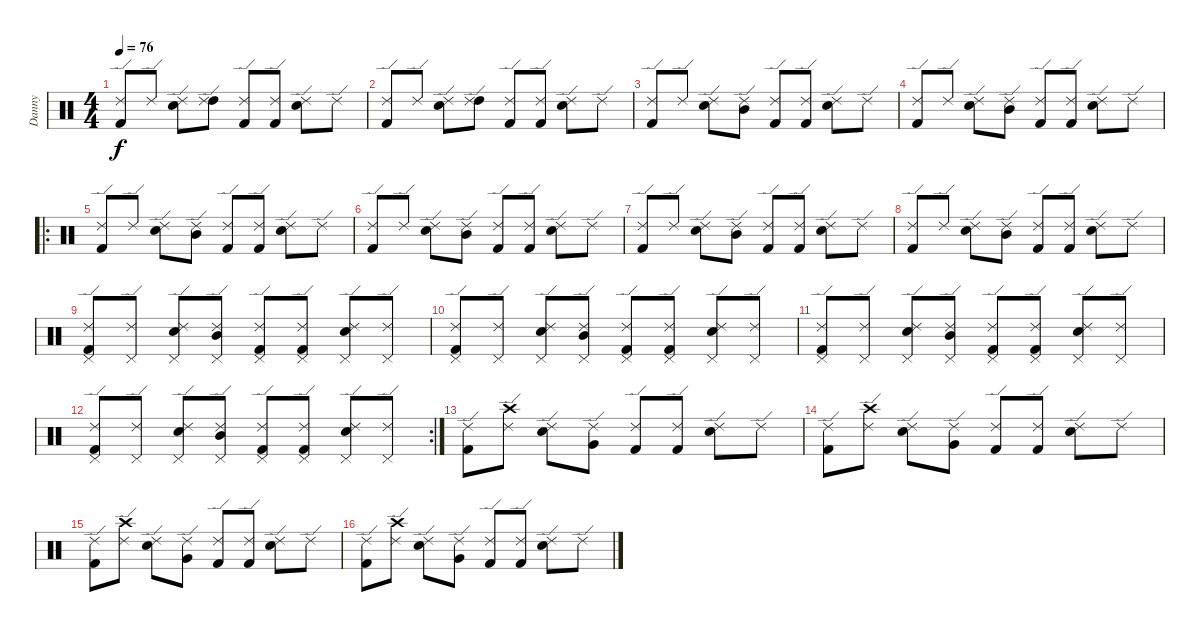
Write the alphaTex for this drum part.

\track ("Danny" "Danny") {instrument percussion}
\staff {score}
\articulation defaults
\ts (4 4)
\tempo 76
\clef neutral
\ks c
("Kick (hit) 2" "Ride (edge) 2").8{dy f} "Ride (edge) 2".8 ("Electric Snare (hit)" "Ride (edge) 2").8 ("High Tom (hit)" "Ride (edge) 2").8 ("Kick (hit) 2" "Ride (edge) 2").8 ("Kick (hit) 2" "Ride (edge) 2").8 ("Electric Snare (hit)" "Ride (edge) 2").8 "Ride (edge) 2".8 |
("Kick (hit) 2" "Ride (edge) 2").8 "Ride (edge) 2".8 ("Electric Snare (hit)" "Ride (edge) 2").8 ("High Tom (hit)" "Ride (edge) 2").8 ("Kick (hit) 2" "Ride (edge) 2").8 ("Kick (hit) 2" "Ride (edge) 2").8 ("Electric Snare (hit)" "Ride (edge) 2").8 "Ride (edge) 2".8 |
("Kick (hit) 2" "Ride (edge) 2").8 "Ride (edge) 2".8 ("Electric Snare (hit)" "Ride (edge) 2").8 ("Mid Tom (hit)" "Ride (edge) 2").8 ("Kick (hit) 2" "Ride (edge) 2").8 ("Kick (hit) 2" "Ride (edge) 2").8 ("Electric Snare (hit)" "Ride (edge) 2").8 "Ride (edge) 2".8 |
("Kick (hit) 2" "Ride (edge) 2").8 "Ride (edge) 2".8 ("Electric Snare (hit)" "Ride (edge) 2").8 ("Mid Tom (hit)" "Ride (edge) 2").8 ("Kick (hit) 2" "Ride (edge) 2").8 ("Kick (hit) 2" "Ride (edge) 2").8 ("Electric Snare (hit)" "Ride (edge) 2").8 "Ride (edge) 2".8 |
\ro
("Kick (hit) 2" "Ride (edge) 2").8 "Ride (edge) 2".8 ("Electric Snare (hit)" "Ride (edge) 2").8 ("Mid Tom (hit)" "Ride (edge) 2").8 ("Kick (hit) 2" "Ride (edge) 2").8 ("Kick (hit) 2" "Ride (edge) 2").8 ("Electric Snare (hit)" "Ride (edge) 2").8 "Ride (edge) 2".8 |
("Kick (hit) 2" "Ride (edge) 2").8 "Ride (edge) 2".8 ("Electric Snare (hit)" "Ride (edge) 2").8 ("Mid Tom (hit)" "Ride (edge) 2").8 ("Kick (hit) 2" "Ride (edge) 2").8 ("Kick (hit) 2" "Ride (edge) 2").8 ("Electric Snare (hit)" "Ride (edge) 2").8 "Ride (edge) 2".8 |
("Kick (hit) 2" "Ride (edge) 2").8 "Ride (edge) 2".8 ("Electric Snare (hit)" "Ride (edge) 2").8 ("Mid Tom (hit)" "Ride (edge) 2").8 ("Kick (hit) 2" "Ride (edge) 2").8 ("Kick (hit) 2" "Ride (edge) 2").8 ("Electric Snare (hit)" "Ride (edge) 2").8 "Ride (edge) 2".8 |
("Kick (hit) 2" "Ride (edge) 2").8 "Ride (edge) 2".8 ("Electric Snare (hit)" "Ride (edge) 2").8 ("Mid Tom (hit)" "Ride (edge) 2").8 ("Kick (hit) 2" "Ride (edge) 2").8 ("Kick (hit) 2" "Ride (edge) 2").8 ("Electric Snare (hit)" "Ride (edge) 2").8 "Ride (edge) 2".8 |
("Kick (hit) 2" "Ride (edge) 2" "Pedal Hi-Hat (hit)").8 ("Ride (edge) 2" "Pedal Hi-Hat (hit)").8 ("Electric Snare (hit)" "Ride (edge) 2" "Pedal Hi-Hat (hit)").8 ("Mid Tom (hit)" "Ride (edge) 2" "Pedal Hi-Hat (hit)").8 ("Kick (hit) 2" "Ride (edge) 2" "Pedal Hi-Hat (hit)").8 ("Kick (hit) 2" "Ride (edge) 2" "Pedal Hi-Hat (hit)").8 ("Electric Snare (hit)" "Ride (edge) 2" "Pedal Hi-Hat (hit)").8 ("Ride (edge) 2" "Pedal Hi-Hat (hit)").8 |
("Kick (hit) 2" "Ride (edge) 2" "Pedal Hi-Hat (hit)").8 ("Ride (edge) 2" "Pedal Hi-Hat (hit)").8 ("Electric Snare (hit)" "Ride (edge) 2" "Pedal Hi-Hat (hit)").8 ("Mid Tom (hit)" "Ride (edge) 2" "Pedal Hi-Hat (hit)").8 ("Kick (hit) 2" "Ride (edge) 2" "Pedal Hi-Hat (hit)").8 ("Kick (hit) 2" "Ride (edge) 2" "Pedal Hi-Hat (hit)").8 ("Electric Snare (hit)" "Ride (edge) 2" "Pedal Hi-Hat (hit)").8 ("Ride (edge) 2" "Pedal Hi-Hat (hit)").8 |
("Kick (hit) 2" "Ride (edge) 2" "Pedal Hi-Hat (hit)").8 ("Ride (edge) 2" "Pedal Hi-Hat (hit)").8 ("Electric Snare (hit)" "Ride (edge) 2" "Pedal Hi-Hat (hit)").8 ("Mid Tom (hit)" "Ride (edge) 2" "Pedal Hi-Hat (hit)").8 ("Kick (hit) 2" "Ride (edge) 2" "Pedal Hi-Hat (hit)").8 ("Kick (hit) 2" "Ride (edge) 2" "Pedal Hi-Hat (hit)").8 ("Electric Snare (hit)" "Ride (edge) 2" "Pedal Hi-Hat (hit)").8 ("Ride (edge) 2" "Pedal Hi-Hat (hit)").8 |
\rc 2
("Kick (hit) 2" "Ride (edge) 2" "Pedal Hi-Hat (hit)").8 ("Ride (edge) 2" "Pedal Hi-Hat (hit)").8 ("Electric Snare (hit)" "Ride (edge) 2" "Pedal Hi-Hat (hit)").8 ("Mid Tom (hit)" "Ride (edge) 2" "Pedal Hi-Hat (hit)").8 ("Kick (hit) 2" "Ride (edge) 2" "Pedal Hi-Hat (hit)").8 ("Kick (hit) 2" "Ride (edge) 2" "Pedal Hi-Hat (hit)").8 ("Electric Snare (hit)" "Ride (edge) 2" "Pedal Hi-Hat (hit)").8 ("Ride (edge) 2" "Pedal Hi-Hat (hit)").8 |
("Kick (hit) 2" "Ride (edge) 2").8 ("Ride (edge) 2" "Crash high (hit)").8 ("Electric Snare (hit)" "Ride (edge) 2").8 ("Very Low Tom (hit)" "Ride (edge) 2").8 ("Kick (hit) 2" "Ride (edge) 2").8 ("Kick (hit) 2" "Ride (edge) 2").8 ("Electric Snare (hit)" "Ride (edge) 2").8 "Ride (edge) 2".8 |
("Kick (hit) 2" "Ride (edge) 2").8 ("Ride (edge) 2" "Crash high (hit)").8 ("Electric Snare (hit)" "Ride (edge) 2").8 ("Very Low Tom (hit)" "Ride (edge) 2").8 ("Kick (hit) 2" "Ride (edge) 2").8 ("Kick (hit) 2" "Ride (edge) 2").8 ("Electric Snare (hit)" "Ride (edge) 2").8 "Ride (edge) 2".8 |
("Kick (hit) 2" "Ride (edge) 2").8 ("Ride (edge) 2" "Crash high (hit)").8 ("Electric Snare (hit)" "Ride (edge) 2").8 ("Very Low Tom (hit)" "Ride (edge) 2").8 ("Kick (hit) 2" "Ride (edge) 2").8 ("Kick (hit) 2" "Ride (edge) 2").8 ("Electric Snare (hit)" "Ride (edge) 2").8 "Ride (edge) 2".8 |
("Kick (hit) 2" "Ride (edge) 2").8 ("Ride (edge) 2" "Crash high (hit)").8 ("Electric Snare (hit)" "Ride (edge) 2").8 ("Very Low Tom (hit)" "Ride (edge) 2").8 ("Kick (hit) 2" "Ride (edge) 2").8 ("Kick (hit) 2" "Ride (edge) 2").8 ("Electric Snare (hit)" "Ride (edge) 2").8 "Ride (edge) 2".8
